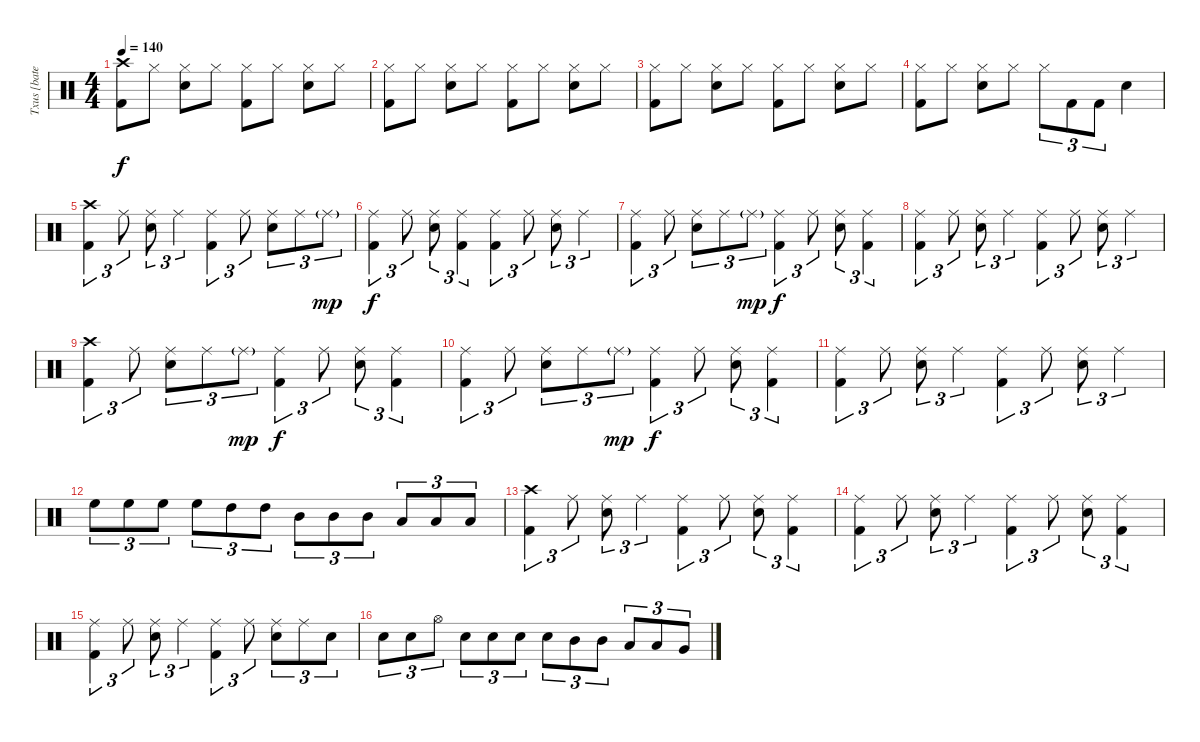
\track ("Txus [bateria]" "Txus [bate") {instrument percussion}
\staff {score}
\articulation defaults
\ts (4 4)
\tempo 140
\clef neutral
\ks c
("Crash high (hit)" "Kick (hit) 2").8{dy f} "Hi-Hat (closed)".8 ("Hi-Hat (closed)" "Snare (hit) 2").8 "Hi-Hat (closed)".8 ("Hi-Hat (closed)" "Kick (hit) 2").8 "Hi-Hat (closed)".8 ("Hi-Hat (closed)" "Snare (hit) 2").8 "Hi-Hat (closed)".8 |
("Hi-Hat (closed)" "Kick (hit) 2").8 "Hi-Hat (closed)".8 ("Hi-Hat (closed)" "Snare (hit) 2").8 "Hi-Hat (closed)".8 ("Hi-Hat (closed)" "Kick (hit) 2").8 "Hi-Hat (closed)".8 ("Hi-Hat (closed)" "Snare (hit) 2").8 "Hi-Hat (closed)".8 |
("Hi-Hat (closed)" "Kick (hit) 2").8 "Hi-Hat (closed)".8 ("Hi-Hat (closed)" "Snare (hit) 2").8 "Hi-Hat (closed)".8 ("Hi-Hat (closed)" "Kick (hit) 2").8 "Hi-Hat (closed)".8 ("Hi-Hat (closed)" "Snare (hit) 2").8 "Hi-Hat (closed)".8 |
("Hi-Hat (closed)" "Kick (hit) 2").8 "Hi-Hat (closed)".8 ("Hi-Hat (closed)" "Snare (hit) 2").8 "Hi-Hat (closed)".8 "Hi-Hat (closed)".8{tu (3 2)} "Kick (hit) 2".8{tu (3 2)} "Kick (hit) 2".8{tu (3 2)} "Snare (hit) 2".4 |
("Crash high (hit)" "Kick (hit) 2").4{tu (3 2)} "Ride (middle)".8{tu (3 2)} ("Ride (middle)" "Snare (hit) 2").8{tu (3 2)} "Ride (middle)".4{tu (3 2)} ("Ride (middle)" "Kick (hit) 2").4{tu (3 2)} "Ride (middle)".8{tu (3 2)} ("Ride (middle)" "Snare (hit) 2").8{tu (3 2)} "Ride (middle)".8{tu (3 2)} "Ride (middle)"{g}.8{tu (3 2) dy mp} |
("Ride (middle)" "Kick (hit) 2").4{tu (3 2) dy f} "Ride (middle)".8{tu (3 2)} ("Ride (middle)" "Snare (hit) 2").8{tu (3 2)} ("Ride (middle)" "Kick (hit) 2").4{tu (3 2)} ("Ride (middle)" "Kick (hit) 2").4{tu (3 2)} "Ride (middle)".8{tu (3 2)} ("Ride (middle)" "Snare (hit) 2").8{tu (3 2)} "Ride (middle)".4{tu (3 2)} |
("Ride (middle)" "Kick (hit) 2").4{tu (3 2)} "Ride (middle)".8{tu (3 2)} ("Ride (middle)" "Snare (hit) 2").8{tu (3 2)} "Ride (middle)".8{tu (3 2)} "Ride (middle)"{g}.8{tu (3 2) dy mp} ("Ride (middle)" "Kick (hit) 2").4{tu (3 2) dy f} "Ride (middle)".8{tu (3 2)} ("Ride (middle)" "Snare (hit) 2").8{tu (3 2)} ("Ride (middle)" "Kick (hit) 2").4{tu (3 2)} |
("Ride (middle)" "Kick (hit) 2").4{tu (3 2)} "Ride (middle)".8{tu (3 2)} ("Ride (middle)" "Snare (hit) 2").8{tu (3 2)} "Ride (middle)".4{tu (3 2)} ("Ride (middle)" "Kick (hit) 2").4{tu (3 2)} "Ride (middle)".8{tu (3 2)} ("Ride (middle)" "Snare (hit) 2").8{tu (3 2)} "Ride (middle)".4{tu (3 2)} |
("Crash high (hit)" "Kick (hit) 2").4{tu (3 2)} "Ride (middle)".8{tu (3 2)} ("Ride (middle)" "Snare (hit) 2").8{tu (3 2)} "Ride (middle)".8{tu (3 2)} "Ride (middle)"{g}.8{tu (3 2) dy mp} ("Ride (middle)" "Kick (hit) 2").4{tu (3 2) dy f} "Ride (middle)".8{tu (3 2)} ("Ride (middle)" "Snare (hit) 2").8{tu (3 2)} ("Ride (middle)" "Kick (hit) 2").4{tu (3 2)} |
("Ride (middle)" "Kick (hit) 2").4{tu (3 2)} "Ride (middle)".8{tu (3 2)} ("Ride (middle)" "Snare (hit) 2").8{tu (3 2)} "Ride (middle)".8{tu (3 2)} "Ride (middle)"{g}.8{tu (3 2) dy mp} ("Ride (middle)" "Kick (hit) 2").4{tu (3 2) dy f} "Ride (middle)".8{tu (3 2)} ("Ride (middle)" "Snare (hit) 2").8{tu (3 2)} ("Ride (middle)" "Kick (hit) 2").4{tu (3 2)} |
("Ride (middle)" "Kick (hit) 2").4{tu (3 2)} "Ride (middle)".8{tu (3 2)} ("Ride (middle)" "Snare (hit) 2").8{tu (3 2)} "Ride (middle)".4{tu (3 2)} ("Ride (middle)" "Kick (hit) 2").4{tu (3 2)} "Ride (middle)".8{tu (3 2)} ("Ride (middle)" "Snare (hit) 2").8{tu (3 2)} "Ride (middle)".4{tu (3 2)} |
"High Floor Tom (hit)".8{tu (3 2)} "High Floor Tom (hit)".8{tu (3 2)} "High Floor Tom (hit)".8{tu (3 2)} "High Floor Tom (hit)".8{tu (3 2)} "High Tom (hit)".8{tu (3 2)} "High Tom (hit)".8{tu (3 2)} "Mid Tom (hit)".8{tu (3 2)} "Mid Tom (hit)".8{tu (3 2)} "Mid Tom (hit)".8{tu (3 2)} "Low Tom (hit)".8{tu (3 2)} "Low Tom (hit)".8{tu (3 2)} "Low Tom (hit)".8{tu (3 2)} |
("Crash high (hit)" "Kick (hit) 2").4{tu (3 2)} "Ride (middle)".8{tu (3 2)} ("Ride (middle)" "Snare (hit) 2").8{tu (3 2)} "Ride (middle)".4{tu (3 2)} ("Ride (middle)" "Kick (hit) 2").4{tu (3 2)} "Ride (middle)".8{tu (3 2)} ("Ride (middle)" "Snare (hit) 2").8{tu (3 2)} ("Ride (middle)" "Kick (hit) 2").4{tu (3 2)} |
("Ride (middle)" "Kick (hit) 2").4{tu (3 2)} "Ride (middle)".8{tu (3 2)} ("Ride (middle)" "Snare (hit) 2").8{tu (3 2)} "Ride (middle)".4{tu (3 2)} ("Ride (middle)" "Kick (hit) 2").4{tu (3 2)} "Ride (middle)".8{tu (3 2)} ("Ride (middle)" "Snare (hit) 2").8{tu (3 2)} ("Ride (middle)" "Kick (hit) 2").4{tu (3 2)} |
("Ride (middle)" "Kick (hit) 2").4{tu (3 2)} "Ride (middle)".8{tu (3 2)} ("Ride (middle)" "Snare (hit) 2").8{tu (3 2)} "Ride (middle)".4{tu (3 2)} ("Ride (middle)" "Kick (hit) 2").4{tu (3 2)} "Ride (middle)".8{tu (3 2)} ("Ride (middle)" "Snare (hit) 2").8{tu (3 2)} "Ride (middle)".8{tu (3 2)} "Snare (hit) 2".8{tu (3 2)} |
"Snare (hit) 2".8{tu (3 2)} "Snare (hit) 2".8{tu (3 2)} "Hi-Hat (open)".8{tu (3 2)} "Snare (hit) 2".8{tu (3 2)} "Snare (hit) 2".8{tu (3 2)} "Snare (hit) 2".8{tu (3 2)} "Snare (hit) 2".8{tu (3 2)} "Mid Tom (hit)".8{tu (3 2)} "Mid Tom (hit)".8{tu (3 2)} "Low Tom (hit)".8{tu (3 2)} "Low Tom (hit)".8{tu (3 2)} "Very Low Tom (hit)".8{tu (3 2)}
